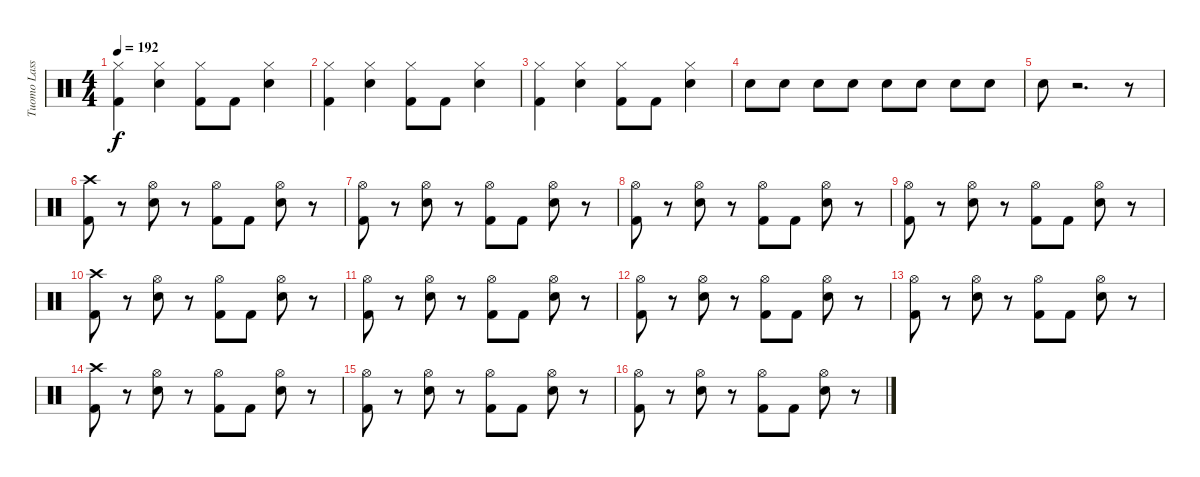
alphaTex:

\track ("Tuomo Lassilla" "Tuomo Lass") {instrument percussion}
\staff {score}
\articulation defaults
\ts (4 4)
\tempo 192
\clef neutral
\ks c
("Kick (hit) 2" "Hi-Hat (closed)").4{dy f} ("Electric Snare (hit)" "Hi-Hat (closed)").4 ("Kick (hit) 2" "Hi-Hat (closed)").8 "Kick (hit) 2".8 ("Electric Snare (hit)" "Hi-Hat (closed)").4 |
("Kick (hit) 2" "Hi-Hat (closed)").4 ("Electric Snare (hit)" "Hi-Hat (closed)").4 ("Kick (hit) 2" "Hi-Hat (closed)").8 "Kick (hit) 2".8 ("Electric Snare (hit)" "Hi-Hat (closed)").4 |
("Kick (hit) 2" "Hi-Hat (closed)").4 ("Electric Snare (hit)" "Hi-Hat (closed)").4 ("Kick (hit) 2" "Hi-Hat (closed)").8 "Kick (hit) 2".8 ("Electric Snare (hit)" "Hi-Hat (closed)").4 |
"Electric Snare (hit)".8 "Electric Snare (hit)".8 "Electric Snare (hit)".8 "Electric Snare (hit)".8 "Electric Snare (hit)".8 "Electric Snare (hit)".8 "Electric Snare (hit)".8 "Electric Snare (hit)".8 |
"Electric Snare (hit)".8 r.2{d} r.8 |
("Crash high (hit)" "Kick (hit) 2").8 r.8 ("Hi-Hat (open)" "Electric Snare (hit)").8 r.8 ("Hi-Hat (open)" "Kick (hit) 2").8 "Kick (hit) 2".8 ("Hi-Hat (open)" "Electric Snare (hit)").8 r.8 |
("Hi-Hat (open)" "Kick (hit) 2").8 r.8 ("Hi-Hat (open)" "Electric Snare (hit)").8 r.8 ("Hi-Hat (open)" "Kick (hit) 2").8 "Kick (hit) 2".8 ("Hi-Hat (open)" "Electric Snare (hit)").8 r.8 |
("Hi-Hat (open)" "Kick (hit) 2").8 r.8 ("Hi-Hat (open)" "Electric Snare (hit)").8 r.8 ("Hi-Hat (open)" "Kick (hit) 2").8 "Kick (hit) 2".8 ("Hi-Hat (open)" "Electric Snare (hit)").8 r.8 |
("Hi-Hat (open)" "Kick (hit) 2").8 r.8 ("Hi-Hat (open)" "Electric Snare (hit)").8 r.8 ("Hi-Hat (open)" "Kick (hit) 2").8 "Kick (hit) 2".8 ("Hi-Hat (open)" "Electric Snare (hit)").8 r.8 |
("Crash high (hit)" "Kick (hit) 2").8 r.8 ("Hi-Hat (open)" "Electric Snare (hit)").8 r.8 ("Hi-Hat (open)" "Kick (hit) 2").8 "Kick (hit) 2".8 ("Hi-Hat (open)" "Electric Snare (hit)").8 r.8 |
("Hi-Hat (open)" "Kick (hit) 2").8 r.8 ("Hi-Hat (open)" "Electric Snare (hit)").8 r.8 ("Hi-Hat (open)" "Kick (hit) 2").8 "Kick (hit) 2".8 ("Hi-Hat (open)" "Electric Snare (hit)").8 r.8 |
("Hi-Hat (open)" "Kick (hit) 2").8 r.8 ("Hi-Hat (open)" "Electric Snare (hit)").8 r.8 ("Hi-Hat (open)" "Kick (hit) 2").8 "Kick (hit) 2".8 ("Hi-Hat (open)" "Electric Snare (hit)").8 r.8 |
("Hi-Hat (open)" "Kick (hit) 2").8 r.8 ("Hi-Hat (open)" "Electric Snare (hit)").8 r.8 ("Hi-Hat (open)" "Kick (hit) 2").8 "Kick (hit) 2".8 ("Hi-Hat (open)" "Electric Snare (hit)").8 r.8 |
("Crash high (hit)" "Kick (hit) 2").8 r.8 ("Hi-Hat (open)" "Electric Snare (hit)").8 r.8 ("Hi-Hat (open)" "Kick (hit) 2").8 "Kick (hit) 2".8 ("Hi-Hat (open)" "Electric Snare (hit)").8 r.8 |
("Hi-Hat (open)" "Kick (hit) 2").8 r.8 ("Hi-Hat (open)" "Electric Snare (hit)").8 r.8 ("Hi-Hat (open)" "Kick (hit) 2").8 "Kick (hit) 2".8 ("Hi-Hat (open)" "Electric Snare (hit)").8 r.8 |
("Hi-Hat (open)" "Kick (hit) 2").8 r.8 ("Hi-Hat (open)" "Electric Snare (hit)").8 r.8 ("Hi-Hat (open)" "Kick (hit) 2").8 "Kick (hit) 2".8 ("Hi-Hat (open)" "Electric Snare (hit)").8 r.8
